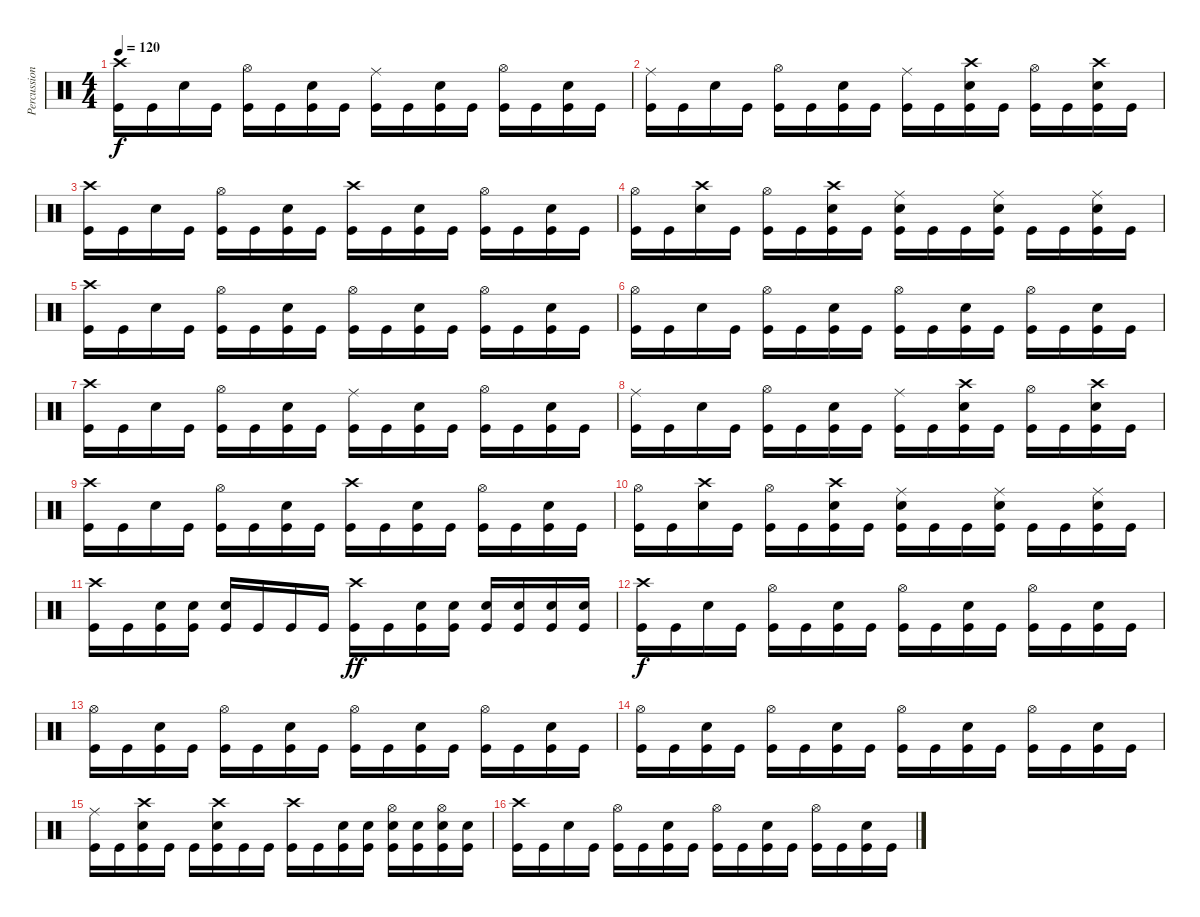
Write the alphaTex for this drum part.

\track ("Percussion" "Percussion") {instrument percussion}
\staff {score}
\articulation defaults
\ts (4 4)
\tempo 120
\clef neutral
\ks c
("Crash high (hit)" "Kick (hit)").16{dy f} "Kick (hit)".16 "Snare (hit) 2".16 "Kick (hit)".16 ("Kick (hit)" "Hi-Hat (open)").16 "Kick (hit)".16 ("Kick (hit)" "Snare (hit) 2").16 "Kick (hit)".16 ("Kick (hit)" "Ride (middle)").16 "Kick (hit)".16 ("Kick (hit)" "Snare (hit) 2").16 "Kick (hit)".16 ("Kick (hit)" "Hi-Hat (open)").16 "Kick (hit)".16 ("Kick (hit)" "Snare (hit) 2").16 "Kick (hit)".16 |
("Ride (middle)" "Kick (hit)").16 "Kick (hit)".16 "Snare (hit) 2".16 "Kick (hit)".16 ("Kick (hit)" "Hi-Hat (open)").16 "Kick (hit)".16 ("Kick (hit)" "Snare (hit) 2").16 "Kick (hit)".16 ("Kick (hit)" "Ride (middle)").16 "Kick (hit)".16 ("Kick (hit)" "Snare (hit) 2" "Crash high (hit)").16 "Kick (hit)".16 ("Kick (hit)" "Hi-Hat (open)").16 "Kick (hit)".16 ("Kick (hit)" "Snare (hit) 2" "Crash high (hit)").16 "Kick (hit)".16 |
("Crash high (hit)" "Kick (hit)").16 "Kick (hit)".16 "Snare (hit) 2".16 "Kick (hit)".16 ("Kick (hit)" "Hi-Hat (open)").16 "Kick (hit)".16 ("Kick (hit)" "Snare (hit) 2").16 "Kick (hit)".16 ("Kick (hit)" "Crash high (hit)").16 "Kick (hit)".16 ("Kick (hit)" "Snare (hit) 2").16 "Kick (hit)".16 ("Kick (hit)" "Hi-Hat (open)").16 "Kick (hit)".16 ("Kick (hit)" "Snare (hit) 2").16 "Kick (hit)".16 |
("Hi-Hat (open)" "Kick (hit)").16 "Kick (hit)".16 ("Snare (hit) 2" "Crash high (hit)").16 "Kick (hit)".16 ("Kick (hit)" "Hi-Hat (open)").16 "Kick (hit)".16 ("Kick (hit)" "Snare (hit) 2" "Crash high (hit)").16 "Kick (hit)".16 ("Kick (hit)" "Ride (middle)" "Snare (hit) 2").16 "Kick (hit)".16 "Kick (hit)".16 ("Kick (hit)" "Snare (hit) 2" "Ride (middle)").16 "Kick (hit)".16 "Kick (hit)".16 ("Kick (hit)" "Snare (hit) 2" "Ride (middle)").16 "Kick (hit)".16 |
("Crash high (hit)" "Kick (hit)").16 "Kick (hit)".16 "Snare (hit) 2".16 "Kick (hit)".16 ("Kick (hit)" "Hi-Hat (open)").16 "Kick (hit)".16 ("Kick (hit)" "Snare (hit) 2").16 "Kick (hit)".16 ("Kick (hit)" "Hi-Hat (open)").16 "Kick (hit)".16 ("Kick (hit)" "Snare (hit) 2").16 "Kick (hit)".16 ("Kick (hit)" "Hi-Hat (open)").16 "Kick (hit)".16 ("Kick (hit)" "Snare (hit) 2").16 "Kick (hit)".16 |
("Hi-Hat (open)" "Kick (hit)").16 "Kick (hit)".16 "Snare (hit) 2".16 "Kick (hit)".16 ("Kick (hit)" "Hi-Hat (open)").16 "Kick (hit)".16 ("Kick (hit)" "Snare (hit) 2").16 "Kick (hit)".16 ("Kick (hit)" "Hi-Hat (open)").16 "Kick (hit)".16 ("Kick (hit)" "Snare (hit) 2").16 "Kick (hit)".16 ("Kick (hit)" "Hi-Hat (open)").16 "Kick (hit)".16 ("Kick (hit)" "Snare (hit) 2").16 "Kick (hit)".16 |
("Crash high (hit)" "Kick (hit)").16 "Kick (hit)".16 "Snare (hit) 2".16 "Kick (hit)".16 ("Kick (hit)" "Hi-Hat (open)").16 "Kick (hit)".16 ("Kick (hit)" "Snare (hit) 2").16 "Kick (hit)".16 ("Kick (hit)" "Ride (middle)").16 "Kick (hit)".16 ("Kick (hit)" "Snare (hit) 2").16 "Kick (hit)".16 ("Kick (hit)" "Hi-Hat (open)").16 "Kick (hit)".16 ("Kick (hit)" "Snare (hit) 2").16 "Kick (hit)".16 |
("Ride (middle)" "Kick (hit)").16 "Kick (hit)".16 "Snare (hit) 2".16 "Kick (hit)".16 ("Kick (hit)" "Hi-Hat (open)").16 "Kick (hit)".16 ("Kick (hit)" "Snare (hit) 2").16 "Kick (hit)".16 ("Kick (hit)" "Ride (middle)").16 "Kick (hit)".16 ("Kick (hit)" "Snare (hit) 2" "Crash high (hit)").16 "Kick (hit)".16 ("Kick (hit)" "Hi-Hat (open)").16 "Kick (hit)".16 ("Kick (hit)" "Snare (hit) 2" "Crash high (hit)").16 "Kick (hit)".16 |
("Crash high (hit)" "Kick (hit)").16 "Kick (hit)".16 "Snare (hit) 2".16 "Kick (hit)".16 ("Kick (hit)" "Hi-Hat (open)").16 "Kick (hit)".16 ("Kick (hit)" "Snare (hit) 2").16 "Kick (hit)".16 ("Kick (hit)" "Crash high (hit)").16 "Kick (hit)".16 ("Kick (hit)" "Snare (hit) 2").16 "Kick (hit)".16 ("Kick (hit)" "Hi-Hat (open)").16 "Kick (hit)".16 ("Kick (hit)" "Snare (hit) 2").16 "Kick (hit)".16 |
("Hi-Hat (open)" "Kick (hit)").16 "Kick (hit)".16 ("Snare (hit) 2" "Crash high (hit)").16 "Kick (hit)".16 ("Kick (hit)" "Hi-Hat (open)").16 "Kick (hit)".16 ("Kick (hit)" "Snare (hit) 2" "Crash high (hit)").16 "Kick (hit)".16 ("Kick (hit)" "Ride (middle)" "Snare (hit) 2").16 "Kick (hit)".16 "Kick (hit)".16 ("Kick (hit)" "Snare (hit) 2" "Ride (middle)").16 "Kick (hit)".16 "Kick (hit)".16 ("Kick (hit)" "Snare (hit) 2" "Ride (middle)").16 "Kick (hit)".16 |
("Crash high (hit)" "Kick (hit)").16 "Kick (hit)".16 ("Kick (hit)" "Snare (hit) 2").16 ("Kick (hit)" "Snare (hit) 2").16 ("Snare (hit) 2" "Kick (hit)").16 "Kick (hit)".16 "Kick (hit)".16 "Kick (hit)".16 ("Crash high (hit)" "Kick (hit)").16{dy ff} "Kick (hit)".16 ("Kick (hit)" "Snare (hit) 2").16 ("Kick (hit)" "Snare (hit) 2").16 ("Snare (hit) 2" "Kick (hit)").16 ("Kick (hit)" "Snare (hit) 2").16 ("Kick (hit)" "Snare (hit) 2").16 ("Kick (hit)" "Snare (hit) 2").16 |
("Crash high (hit)" "Kick (hit)").16{dy f} "Kick (hit)".16 "Snare (hit) 2".16 "Kick (hit)".16 ("Kick (hit)" "Hi-Hat (open)").16 "Kick (hit)".16 ("Kick (hit)" "Snare (hit) 2").16 "Kick (hit)".16 ("Kick (hit)" "Hi-Hat (open)").16 "Kick (hit)".16 ("Kick (hit)" "Snare (hit) 2").16 "Kick (hit)".16 ("Kick (hit)" "Hi-Hat (open)").16 "Kick (hit)".16 ("Kick (hit)" "Snare (hit) 2").16 "Kick (hit)".16 |
("Kick (hit)" "Hi-Hat (open)").16 "Kick (hit)".16 ("Kick (hit)" "Snare (hit) 2").16 "Kick (hit)".16 ("Kick (hit)" "Hi-Hat (open)").16 "Kick (hit)".16 ("Kick (hit)" "Snare (hit) 2").16 "Kick (hit)".16 ("Kick (hit)" "Hi-Hat (open)").16 "Kick (hit)".16 ("Kick (hit)" "Snare (hit) 2").16 "Kick (hit)".16 ("Kick (hit)" "Hi-Hat (open)").16 "Kick (hit)".16 ("Kick (hit)" "Snare (hit) 2").16 "Kick (hit)".16 |
("Kick (hit)" "Hi-Hat (open)").16 "Kick (hit)".16 ("Kick (hit)" "Snare (hit) 2").16 "Kick (hit)".16 ("Kick (hit)" "Hi-Hat (open)").16 "Kick (hit)".16 ("Kick (hit)" "Snare (hit) 2").16 "Kick (hit)".16 ("Kick (hit)" "Hi-Hat (open)").16 "Kick (hit)".16 ("Kick (hit)" "Snare (hit) 2").16 "Kick (hit)".16 ("Kick (hit)" "Hi-Hat (open)").16 "Kick (hit)".16 ("Kick (hit)" "Snare (hit) 2").16 "Kick (hit)".16 |
("Kick (hit)" "Ride (middle)").16 "Kick (hit)".16 ("Snare (hit) 2" "Crash high (hit)" "Kick (hit)").16 "Kick (hit)".16 "Kick (hit)".16 ("Snare (hit) 2" "Crash high (hit)" "Kick (hit)").16 "Kick (hit)".16 "Kick (hit)".16 ("Kick (hit)" "Crash high (hit)").16 "Kick (hit)".16 ("Snare (hit) 2" "Kick (hit)").16 ("Kick (hit)" "Snare (hit) 2").16 ("Kick (hit)" "Snare (hit) 2" "Hi-Hat (open)").16 ("Snare (hit) 2" "Kick (hit)").16 ("Kick (hit)" "Snare (hit) 2" "Hi-Hat (open)").16 ("Kick (hit)" "Snare (hit) 2").16 |
("Crash high (hit)" "Kick (hit)").16 "Kick (hit)".16 "Snare (hit) 2".16 "Kick (hit)".16 ("Kick (hit)" "Hi-Hat (open)").16 "Kick (hit)".16 ("Kick (hit)" "Snare (hit) 2").16 "Kick (hit)".16 ("Kick (hit)" "Hi-Hat (open)").16 "Kick (hit)".16 ("Kick (hit)" "Snare (hit) 2").16 "Kick (hit)".16 ("Kick (hit)" "Hi-Hat (open)").16 "Kick (hit)".16 ("Kick (hit)" "Snare (hit) 2").16 "Kick (hit)".16
